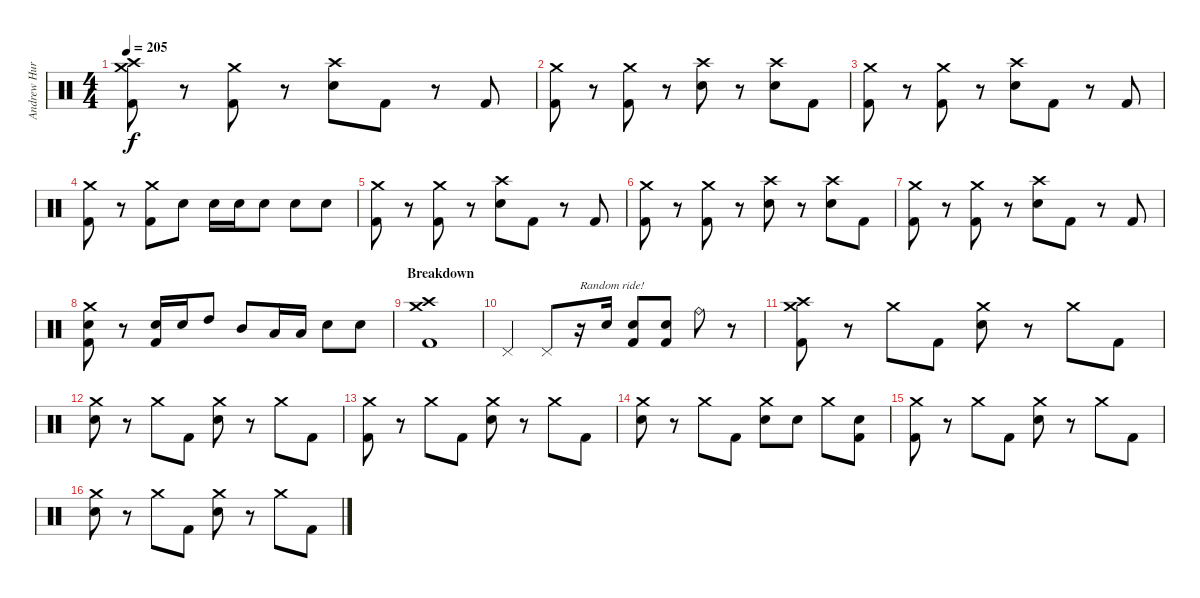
\track ("Andrew Hurley (Drums)" "Andrew Hur") {instrument percussion}
\staff {score}
\articulation defaults
\ts (4 4)
\tempo 205
\clef neutral
\ks c
("Crash high (hit)" "Crash medium (hit)" "Kick (hit) 2").8{dy f} r.8 ("Crash medium (hit)" "Kick (hit) 2").8 r.8 ("Crash high (hit)" "Electric Snare (hit)").8 "Kick (hit) 2".8 r.8 "Kick (hit) 2".8 |
("Crash medium (hit)" "Kick (hit) 2").8 r.8 ("Crash medium (hit)" "Kick (hit) 2").8 r.8 ("Crash high (hit)" "Electric Snare (hit)").8 r.8 ("Crash high (hit)" "Electric Snare (hit)").8 "Kick (hit) 2".8 |
("Crash medium (hit)" "Kick (hit) 2").8 r.8 ("Crash medium (hit)" "Kick (hit) 2").8 r.8 ("Crash high (hit)" "Electric Snare (hit)").8 "Kick (hit) 2".8 r.8 "Kick (hit) 2".8 |
("Crash medium (hit)" "Kick (hit) 2").8 r.8 ("Crash medium (hit)" "Kick (hit) 2").8 "Electric Snare (hit)".8 "Electric Snare (hit)".16 "Electric Snare (hit)".16 "Electric Snare (hit)".8 "Electric Snare (hit)".8 "Electric Snare (hit)".8 |
("Crash medium (hit)" "Kick (hit) 2").8 r.8 ("Crash medium (hit)" "Kick (hit) 2").8 r.8 ("Crash high (hit)" "Electric Snare (hit)").8 "Kick (hit) 2".8 r.8 "Kick (hit) 2".8 |
("Crash medium (hit)" "Kick (hit) 2").8 r.8 ("Crash medium (hit)" "Kick (hit) 2").8 r.8 ("Crash high (hit)" "Electric Snare (hit)").8 r.8 ("Crash high (hit)" "Electric Snare (hit)").8 "Kick (hit) 2".8 |
("Crash medium (hit)" "Kick (hit) 2").8 r.8 ("Crash medium (hit)" "Kick (hit) 2").8 r.8 ("Crash high (hit)" "Electric Snare (hit)").8 "Kick (hit) 2".8 r.8 "Kick (hit) 2".8 |
("Crash medium (hit)" "Electric Snare (hit)" "Kick (hit) 2").8 r.8 ("Electric Snare (hit)" "Kick (hit) 2").16 "Electric Snare (hit)".16 "High Tom (hit)".8 "Mid Tom (hit)".8 "Low Tom (hit)".16 "Low Tom (hit)".16 "Electric Snare (hit)".8 "Electric Snare (hit)".8 |
\section ("" "Breakdown")
("Crash medium (hit)" "Crash high (hit)" "Kick (hit) 2").1 |
"Pedal Hi-Hat (hit)".4 "Pedal Hi-Hat (hit)".8 r.16{txt "Random ride!"} "Electric Snare (hit)".16 ("Electric Snare (hit)" "Kick (hit) 2").8 ("Electric Snare (hit)" "Kick (hit) 2").8 "Ride (bell)".8{volume 16} r.8{volume 12} |
("Crash high (hit)" "Crash medium (hit)" "Kick (hit) 2").8 r.8 "Crash medium (hit)".8 "Kick (hit) 2".8 ("Crash medium (hit)" "Electric Snare (hit)").8 r.8 "Crash medium (hit)".8 "Kick (hit) 2".8 |
("Crash medium (hit)" "Electric Snare (hit)").8 r.8 "Crash medium (hit)".8 "Kick (hit) 2".8 ("Crash medium (hit)" "Electric Snare (hit)").8 r.8 "Crash medium (hit)".8 "Kick (hit) 2".8 |
("Crash medium (hit)" "Kick (hit) 2").8 r.8 "Crash medium (hit)".8 "Kick (hit) 2".8 ("Crash medium (hit)" "Electric Snare (hit)").8 r.8 "Crash medium (hit)".8 "Kick (hit) 2".8 |
("Crash medium (hit)" "Electric Snare (hit)").8 r.8 "Crash medium (hit)".8 "Kick (hit) 2".8 ("Crash medium (hit)" "Electric Snare (hit)").8 "Electric Snare (hit)".8 "Crash medium (hit)".8 ("Electric Snare (hit)" "Kick (hit) 2").8 |
("Crash medium (hit)" "Kick (hit) 2").8 r.8 "Crash medium (hit)".8 "Kick (hit) 2".8 ("Crash medium (hit)" "Electric Snare (hit)").8 r.8 "Crash medium (hit)".8 "Kick (hit) 2".8 |
("Crash medium (hit)" "Electric Snare (hit)").8 r.8 "Crash medium (hit)".8 "Kick (hit) 2".8 ("Crash medium (hit)" "Electric Snare (hit)").8 r.8 "Crash medium (hit)".8 "Kick (hit) 2".8
